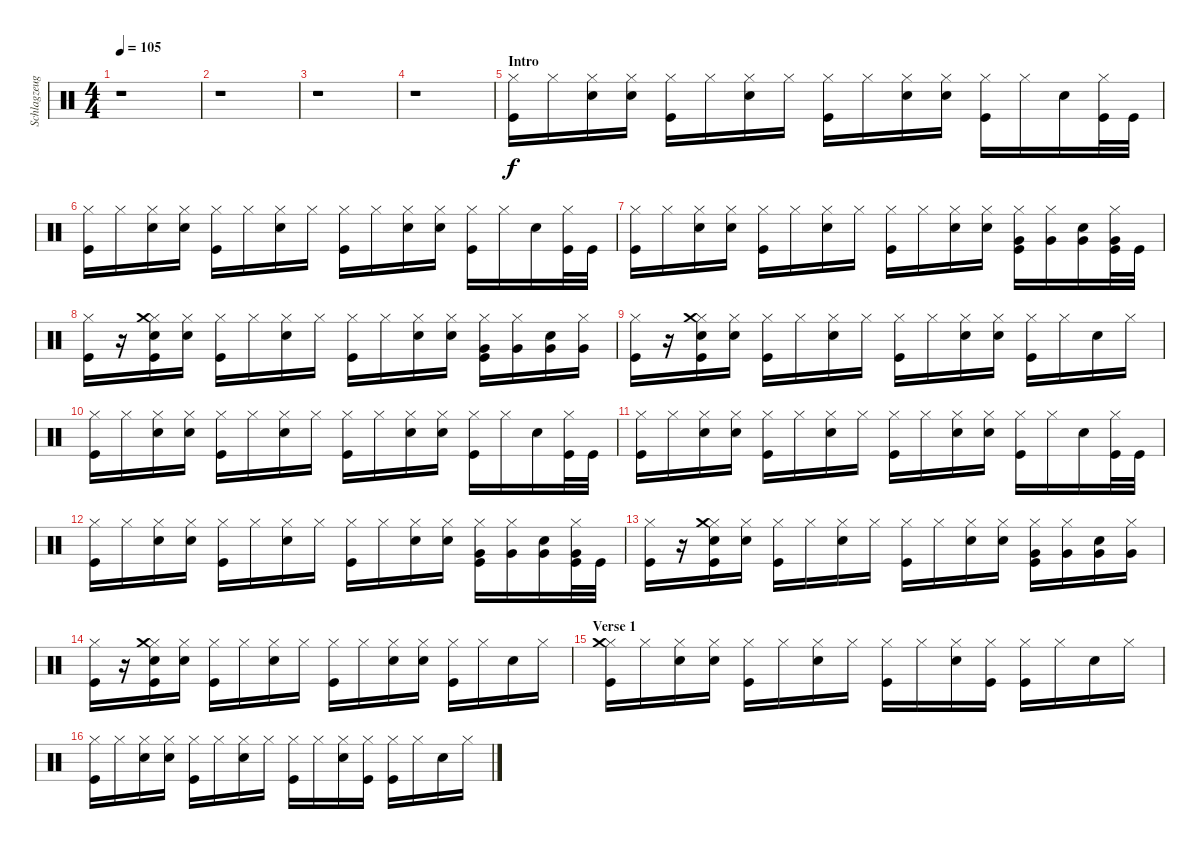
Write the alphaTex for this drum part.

\track ("Schlagzeug - Bela B." "Schlagzeug") {instrument percussion}
\staff {score}
\articulation defaults
\ts (4 4)
\tempo 105
\clef neutral
\ks c
r.1{dy f} |
r.1 |
r.1 |
r.1 |
\section ("" "Intro")
("Kick (hit)" "Hi-Hat (closed)").16 "Hi-Hat (closed)".16 ("Electric Snare (hit)" "Hi-Hat (closed)").16 ("Electric Snare (hit)" "Hi-Hat (closed)").16 ("Kick (hit)" "Hi-Hat (closed)").16 "Hi-Hat (closed)".16 ("Electric Snare (hit)" "Hi-Hat (closed)").16 "Hi-Hat (closed)".16 ("Kick (hit)" "Hi-Hat (closed)").16 "Hi-Hat (closed)".16 ("Electric Snare (hit)" "Hi-Hat (closed)").16 ("Electric Snare (hit)" "Hi-Hat (closed)").16 ("Kick (hit)" "Hi-Hat (closed)").16 "Hi-Hat (closed)".16 "Electric Snare (hit)".16 ("Hi-Hat (closed)" "Kick (hit)").32 "Kick (hit)".32 |
("Kick (hit)" "Hi-Hat (closed)").16 "Hi-Hat (closed)".16 ("Electric Snare (hit)" "Hi-Hat (closed)").16 ("Electric Snare (hit)" "Hi-Hat (closed)").16 ("Kick (hit)" "Hi-Hat (closed)").16 "Hi-Hat (closed)".16 ("Electric Snare (hit)" "Hi-Hat (closed)").16 "Hi-Hat (closed)".16 ("Kick (hit)" "Hi-Hat (closed)").16 "Hi-Hat (closed)".16 ("Electric Snare (hit)" "Hi-Hat (closed)").16 ("Electric Snare (hit)" "Hi-Hat (closed)").16 ("Kick (hit)" "Hi-Hat (closed)").16 "Hi-Hat (closed)".16 "Electric Snare (hit)".16 ("Hi-Hat (closed)" "Kick (hit)").32 "Kick (hit)".32 |
("Kick (hit)" "Hi-Hat (closed)").16 "Hi-Hat (closed)".16 ("Electric Snare (hit)" "Hi-Hat (closed)").16 ("Electric Snare (hit)" "Hi-Hat (closed)").16 ("Kick (hit)" "Hi-Hat (closed)").16 "Hi-Hat (closed)".16 ("Electric Snare (hit)" "Hi-Hat (closed)").16 "Hi-Hat (closed)".16 ("Kick (hit)" "Hi-Hat (closed)").16 "Hi-Hat (closed)".16 ("Electric Snare (hit)" "Hi-Hat (closed)").16 ("Electric Snare (hit)" "Hi-Hat (closed)").16 ("Kick (hit)" "Hi-Hat (closed)" "Very Low Tom (hit)").16 ("Hi-Hat (closed)" "Very Low Tom (hit)").16 ("Electric Snare (hit)" "Very Low Tom (hit)").16 ("Hi-Hat (closed)" "Kick (hit)" "Very Low Tom (hit)").32 "Kick (hit)".32 |
("Kick (hit)" "Hi-Hat (closed)").16 r.16 ("Electric Snare (hit)" "Hi-Hat (closed)" "Kick (hit)" "Crash medium (hit)").16 ("Electric Snare (hit)" "Hi-Hat (closed)").16 ("Kick (hit)" "Hi-Hat (closed)").16 "Hi-Hat (closed)".16 ("Electric Snare (hit)" "Hi-Hat (closed)").16 "Hi-Hat (closed)".16 ("Kick (hit)" "Hi-Hat (closed)").16 "Hi-Hat (closed)".16 ("Electric Snare (hit)" "Hi-Hat (closed)").16 ("Electric Snare (hit)" "Hi-Hat (closed)").16 ("Kick (hit)" "Hi-Hat (closed)" "Very Low Tom (hit)").16 ("Hi-Hat (closed)" "Very Low Tom (hit)").16 ("Electric Snare (hit)" "Very Low Tom (hit)").16 ("Hi-Hat (closed)" "Very Low Tom (hit)").16 |
("Kick (hit)" "Hi-Hat (closed)").16 r.16 ("Electric Snare (hit)" "Hi-Hat (closed)" "Kick (hit)" "Crash medium (hit)").16 ("Electric Snare (hit)" "Hi-Hat (closed)").16 ("Kick (hit)" "Hi-Hat (closed)").16 "Hi-Hat (closed)".16 ("Electric Snare (hit)" "Hi-Hat (closed)").16 "Hi-Hat (closed)".16 ("Kick (hit)" "Hi-Hat (closed)").16 "Hi-Hat (closed)".16 ("Electric Snare (hit)" "Hi-Hat (closed)").16 ("Electric Snare (hit)" "Hi-Hat (closed)").16 ("Kick (hit)" "Hi-Hat (closed)").16 "Hi-Hat (closed)".16 "Electric Snare (hit)".16 "Hi-Hat (closed)".16 |
("Kick (hit)" "Hi-Hat (closed)").16 "Hi-Hat (closed)".16 ("Electric Snare (hit)" "Hi-Hat (closed)").16 ("Electric Snare (hit)" "Hi-Hat (closed)").16 ("Kick (hit)" "Hi-Hat (closed)").16 "Hi-Hat (closed)".16 ("Electric Snare (hit)" "Hi-Hat (closed)").16 "Hi-Hat (closed)".16 ("Kick (hit)" "Hi-Hat (closed)").16 "Hi-Hat (closed)".16 ("Electric Snare (hit)" "Hi-Hat (closed)").16 ("Electric Snare (hit)" "Hi-Hat (closed)").16 ("Kick (hit)" "Hi-Hat (closed)").16 "Hi-Hat (closed)".16 "Electric Snare (hit)".16 ("Hi-Hat (closed)" "Kick (hit)").32 "Kick (hit)".32 |
("Kick (hit)" "Hi-Hat (closed)").16 "Hi-Hat (closed)".16 ("Electric Snare (hit)" "Hi-Hat (closed)").16 ("Electric Snare (hit)" "Hi-Hat (closed)").16 ("Kick (hit)" "Hi-Hat (closed)").16 "Hi-Hat (closed)".16 ("Electric Snare (hit)" "Hi-Hat (closed)").16 "Hi-Hat (closed)".16 ("Kick (hit)" "Hi-Hat (closed)").16 "Hi-Hat (closed)".16 ("Electric Snare (hit)" "Hi-Hat (closed)").16 ("Electric Snare (hit)" "Hi-Hat (closed)").16 ("Kick (hit)" "Hi-Hat (closed)").16 "Hi-Hat (closed)".16 "Electric Snare (hit)".16 ("Hi-Hat (closed)" "Kick (hit)").32 "Kick (hit)".32 |
("Kick (hit)" "Hi-Hat (closed)").16 "Hi-Hat (closed)".16 ("Electric Snare (hit)" "Hi-Hat (closed)").16 ("Electric Snare (hit)" "Hi-Hat (closed)").16 ("Kick (hit)" "Hi-Hat (closed)").16 "Hi-Hat (closed)".16 ("Electric Snare (hit)" "Hi-Hat (closed)").16 "Hi-Hat (closed)".16 ("Kick (hit)" "Hi-Hat (closed)").16 "Hi-Hat (closed)".16 ("Electric Snare (hit)" "Hi-Hat (closed)").16 ("Electric Snare (hit)" "Hi-Hat (closed)").16 ("Kick (hit)" "Hi-Hat (closed)" "Very Low Tom (hit)").16 ("Hi-Hat (closed)" "Very Low Tom (hit)").16 ("Electric Snare (hit)" "Very Low Tom (hit)").16 ("Hi-Hat (closed)" "Kick (hit)" "Very Low Tom (hit)").32 "Kick (hit)".32 |
("Kick (hit)" "Hi-Hat (closed)").16 r.16 ("Electric Snare (hit)" "Hi-Hat (closed)" "Kick (hit)" "Crash medium (hit)").16 ("Electric Snare (hit)" "Hi-Hat (closed)").16 ("Kick (hit)" "Hi-Hat (closed)").16 "Hi-Hat (closed)".16 ("Electric Snare (hit)" "Hi-Hat (closed)").16 "Hi-Hat (closed)".16 ("Kick (hit)" "Hi-Hat (closed)").16 "Hi-Hat (closed)".16 ("Electric Snare (hit)" "Hi-Hat (closed)").16 ("Electric Snare (hit)" "Hi-Hat (closed)").16 ("Kick (hit)" "Hi-Hat (closed)" "Very Low Tom (hit)").16 ("Hi-Hat (closed)" "Very Low Tom (hit)").16 ("Electric Snare (hit)" "Very Low Tom (hit)").16 ("Hi-Hat (closed)" "Very Low Tom (hit)").16 |
("Kick (hit)" "Hi-Hat (closed)").16 r.16 ("Electric Snare (hit)" "Hi-Hat (closed)" "Kick (hit)" "Crash medium (hit)").16 ("Electric Snare (hit)" "Hi-Hat (closed)").16 ("Kick (hit)" "Hi-Hat (closed)").16 "Hi-Hat (closed)".16 ("Electric Snare (hit)" "Hi-Hat (closed)").16 "Hi-Hat (closed)".16 ("Kick (hit)" "Hi-Hat (closed)").16 "Hi-Hat (closed)".16 ("Electric Snare (hit)" "Hi-Hat (closed)").16 ("Electric Snare (hit)" "Hi-Hat (closed)").16 ("Kick (hit)" "Hi-Hat (closed)").16 "Hi-Hat (closed)".16 "Electric Snare (hit)".16 "Hi-Hat (closed)".16 |
\section ("" "Verse 1")
("Kick (hit)" "Hi-Hat (closed)" "Crash medium (hit)").16 "Hi-Hat (closed)".16 ("Hi-Hat (closed)" "Electric Snare (hit)").16 ("Hi-Hat (closed)" "Electric Snare (hit)").16 ("Hi-Hat (closed)" "Kick (hit)").16 "Hi-Hat (closed)".16 ("Electric Snare (hit)" "Hi-Hat (closed)").16 "Hi-Hat (closed)".16 ("Kick (hit)" "Hi-Hat (closed)").16 "Hi-Hat (closed)".16 ("Electric Snare (hit)" "Hi-Hat (closed)").16 ("Hi-Hat (closed)" "Kick (hit)").16 ("Hi-Hat (closed)" "Kick (hit)").16 "Hi-Hat (closed)".16 "Electric Snare (hit)".16 "Hi-Hat (closed)".16 |
("Kick (hit)" "Hi-Hat (closed)").16 "Hi-Hat (closed)".16 ("Hi-Hat (closed)" "Electric Snare (hit)").16 ("Hi-Hat (closed)" "Electric Snare (hit)").16 ("Hi-Hat (closed)" "Kick (hit)").16 "Hi-Hat (closed)".16 ("Electric Snare (hit)" "Hi-Hat (closed)").16 "Hi-Hat (closed)".16 ("Kick (hit)" "Hi-Hat (closed)").16 "Hi-Hat (closed)".16 ("Electric Snare (hit)" "Hi-Hat (closed)").16 ("Hi-Hat (closed)" "Kick (hit)").16 ("Hi-Hat (closed)" "Kick (hit)").16 "Hi-Hat (closed)".16 "Electric Snare (hit)".16 "Hi-Hat (closed)".16
